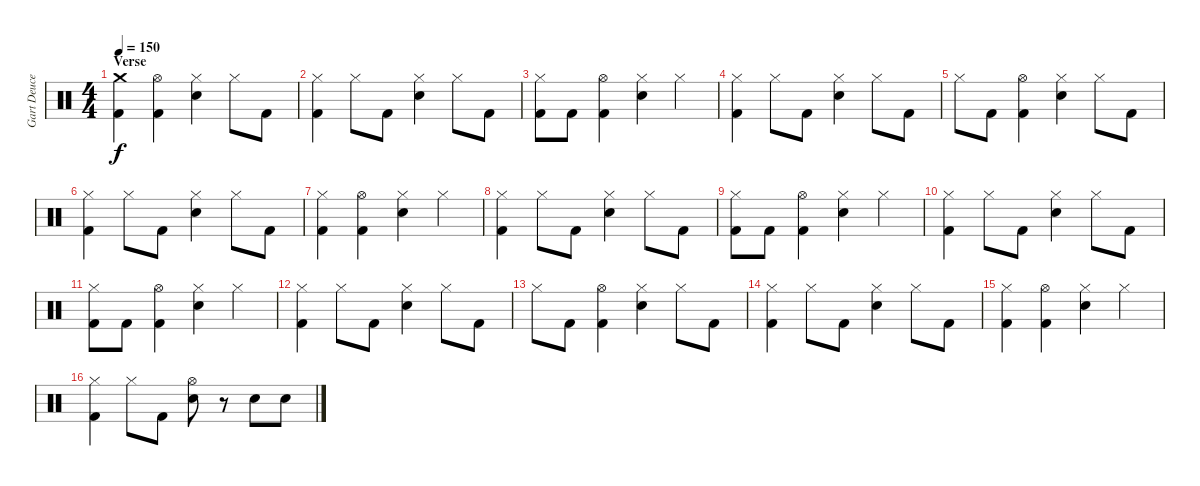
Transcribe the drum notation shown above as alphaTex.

\track ("Gart Deuce" "Gart Deuce") {instrument percussion}
\staff {score}
\articulation defaults
\ts (4 4)
\section ("" "Verse")
\tempo 150
\clef neutral
\ks c
("Crash medium (hit)" "Kick (hit) 2").4{dy f} ("Hi-Hat (open)" "Kick (hit) 2").4 ("Hi-Hat (closed)" "Snare (hit) 2").4 "Hi-Hat (closed)".8 "Kick (hit) 2".8 |
("Hi-Hat (closed)" "Kick (hit) 2").4 "Hi-Hat (closed)".8 "Kick (hit) 2".8 ("Hi-Hat (closed)" "Snare (hit) 2").4 "Hi-Hat (closed)".8 "Kick (hit) 2".8 |
("Hi-Hat (closed)" "Kick (hit) 2").8 "Kick (hit) 2".8 ("Hi-Hat (open)" "Kick (hit) 2").4 ("Hi-Hat (closed)" "Snare (hit) 2").4 "Hi-Hat (closed)".4 |
("Hi-Hat (closed)" "Kick (hit) 2").4 "Hi-Hat (closed)".8 "Kick (hit) 2".8 ("Hi-Hat (closed)" "Snare (hit) 2").4 "Hi-Hat (closed)".8 "Kick (hit) 2".8 |
"Hi-Hat (closed)".8 "Kick (hit) 2".8 ("Hi-Hat (open)" "Kick (hit) 2").4 ("Hi-Hat (closed)" "Snare (hit) 2").4 "Hi-Hat (closed)".8 "Kick (hit) 2".8 |
("Hi-Hat (closed)" "Kick (hit) 2").4 "Hi-Hat (closed)".8 "Kick (hit) 2".8 ("Hi-Hat (closed)" "Snare (hit) 2").4 "Hi-Hat (closed)".8 "Kick (hit) 2".8 |
("Hi-Hat (closed)" "Kick (hit) 2").4 ("Hi-Hat (open)" "Kick (hit) 2").4 ("Hi-Hat (closed)" "Snare (hit) 2").4 "Hi-Hat (closed)".4 |
("Hi-Hat (closed)" "Kick (hit) 2").4 "Hi-Hat (closed)".8 "Kick (hit) 2".8 ("Hi-Hat (closed)" "Snare (hit) 2").4 "Hi-Hat (closed)".8 "Kick (hit) 2".8 |
("Hi-Hat (closed)" "Kick (hit) 2").8 "Kick (hit) 2".8 ("Hi-Hat (open)" "Kick (hit) 2").4 ("Hi-Hat (closed)" "Snare (hit) 2").4 "Hi-Hat (closed)".4 |
("Hi-Hat (closed)" "Kick (hit) 2").4 "Hi-Hat (closed)".8 "Kick (hit) 2".8 ("Hi-Hat (closed)" "Snare (hit) 2").4 "Hi-Hat (closed)".8 "Kick (hit) 2".8 |
("Hi-Hat (closed)" "Kick (hit) 2").8 "Kick (hit) 2".8 ("Hi-Hat (open)" "Kick (hit) 2").4 ("Hi-Hat (closed)" "Snare (hit) 2").4 "Hi-Hat (closed)".4 |
("Hi-Hat (closed)" "Kick (hit) 2").4 "Hi-Hat (closed)".8 "Kick (hit) 2".8 ("Hi-Hat (closed)" "Snare (hit) 2").4 "Hi-Hat (closed)".8 "Kick (hit) 2".8 |
"Hi-Hat (closed)".8 "Kick (hit) 2".8 ("Hi-Hat (open)" "Kick (hit) 2").4 ("Hi-Hat (closed)" "Snare (hit) 2").4 "Hi-Hat (closed)".8 "Kick (hit) 2".8 |
("Hi-Hat (closed)" "Kick (hit) 2").4 "Hi-Hat (closed)".8 "Kick (hit) 2".8 ("Hi-Hat (closed)" "Snare (hit) 2").4 "Hi-Hat (closed)".8 "Kick (hit) 2".8 |
("Hi-Hat (closed)" "Kick (hit) 2").4 ("Hi-Hat (open)" "Kick (hit) 2").4 ("Hi-Hat (closed)" "Snare (hit) 2").4 "Hi-Hat (closed)".4 |
("Hi-Hat (closed)" "Kick (hit) 2").4 "Hi-Hat (closed)".8 "Kick (hit) 2".8 ("Hi-Hat (open)" "Snare (hit) 2").8 r.8 "Snare (hit) 2".8 "Snare (hit) 2".8
